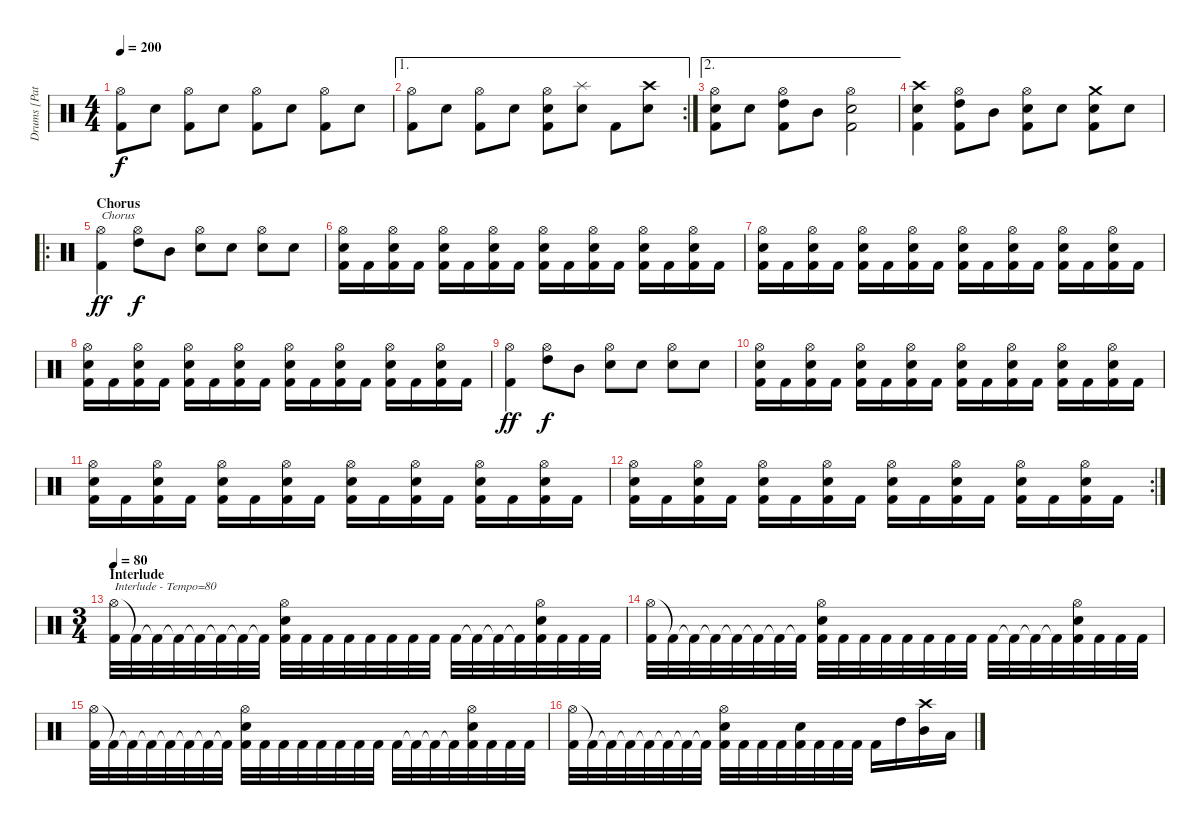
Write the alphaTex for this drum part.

\track ("Drums [Patrick Robert]" "Drums [Pat") {instrument percussion}
\staff {score}
\articulation defaults
\ts (4 4)
\tempo 200
\clef neutral
\ks c
("Hi-Hat (open)" "Kick (hit) 2").8{dy f} "Electric Snare (hit)".8 ("Hi-Hat (open)" "Kick (hit) 2").8 "Electric Snare (hit)".8 ("Hi-Hat (open)" "Kick (hit) 2").8 "Electric Snare (hit)".8 ("Hi-Hat (open)" "Kick (hit) 2").8 "Electric Snare (hit)".8 |
\ae 1
\rc 2
("Hi-Hat (open)" "Kick (hit) 2").8 "Electric Snare (hit)".8 ("Hi-Hat (open)" "Kick (hit) 2").8 "Electric Snare (hit)".8 ("Hi-Hat (open)" "Electric Snare (hit)" "Kick (hit) 2").8 ("Splash (hit)" "Electric Snare (hit)").8 "Kick (hit) 2".8 ("Crash high (hit)" "Electric Snare (hit)").8 |
\ae 2
("Hi-Hat (open)" "Electric Snare (hit)" "Kick (hit) 2").8 "Electric Snare (hit)".8 ("Hi-Hat (open)" "High Tom (hit)" "Kick (hit) 2").8 "Mid Tom (hit)".8 ("Hi-Hat (open)" "Electric Snare (hit)" "Kick (hit) 2").2 |
("Crash high (hit)" "Electric Snare (hit)" "Kick (hit) 2").4 ("Hi-Hat (open)" "High Tom (hit)" "Kick (hit) 2").8 "Mid Tom (hit)".8 ("Hi-Hat (open)" "Electric Snare (hit)" "Kick (hit) 2").8 "Electric Snare (hit)".8 ("Crash medium (hit)" "Electric Snare (hit)" "Kick (hit) 2").8 "Electric Snare (hit)".8 |
\ro
\section ("" "Chorus")
("Hi-Hat (open)" "Kick (hit) 2").4{txt "Chorus" dy ff} ("Hi-Hat (open)" "High Tom (hit)").8{dy f} "Mid Tom (hit)".8 ("Hi-Hat (open)" "Electric Snare (hit)").8 "Electric Snare (hit)".8 ("Hi-Hat (open)" "Electric Snare (hit)").8 "Electric Snare (hit)".8 |
("Hi-Hat (open)" "Electric Snare (hit)" "Kick (hit) 2").16 "Kick (hit) 2".16 ("Hi-Hat (open)" "Electric Snare (hit)" "Kick (hit) 2").16 "Kick (hit) 2".16 ("Hi-Hat (open)" "Electric Snare (hit)" "Kick (hit) 2").16 "Kick (hit) 2".16 ("Hi-Hat (open)" "Electric Snare (hit)" "Kick (hit) 2").16 "Kick (hit) 2".16 ("Hi-Hat (open)" "Electric Snare (hit)" "Kick (hit) 2").16 "Kick (hit) 2".16 ("Hi-Hat (open)" "Electric Snare (hit)" "Kick (hit) 2").16 "Kick (hit) 2".16 ("Hi-Hat (open)" "Electric Snare (hit)" "Kick (hit) 2").16 "Kick (hit) 2".16 ("Hi-Hat (open)" "Electric Snare (hit)" "Kick (hit) 2").16 "Kick (hit) 2".16 |
("Hi-Hat (open)" "Electric Snare (hit)" "Kick (hit) 2").16 "Kick (hit) 2".16 ("Hi-Hat (open)" "Electric Snare (hit)" "Kick (hit) 2").16 "Kick (hit) 2".16 ("Hi-Hat (open)" "Electric Snare (hit)" "Kick (hit) 2").16 "Kick (hit) 2".16 ("Hi-Hat (open)" "Electric Snare (hit)" "Kick (hit) 2").16 "Kick (hit) 2".16 ("Hi-Hat (open)" "Electric Snare (hit)" "Kick (hit) 2").16 "Kick (hit) 2".16 ("Hi-Hat (open)" "Electric Snare (hit)" "Kick (hit) 2").16 "Kick (hit) 2".16 ("Hi-Hat (open)" "Electric Snare (hit)" "Kick (hit) 2").16 "Kick (hit) 2".16 ("Hi-Hat (open)" "Electric Snare (hit)" "Kick (hit) 2").16 "Kick (hit) 2".16 |
("Hi-Hat (open)" "Electric Snare (hit)" "Kick (hit) 2").16 "Kick (hit) 2".16 ("Hi-Hat (open)" "Electric Snare (hit)" "Kick (hit) 2").16 "Kick (hit) 2".16 ("Hi-Hat (open)" "Electric Snare (hit)" "Kick (hit) 2").16 "Kick (hit) 2".16 ("Hi-Hat (open)" "Electric Snare (hit)" "Kick (hit) 2").16 "Kick (hit) 2".16 ("Hi-Hat (open)" "Electric Snare (hit)" "Kick (hit) 2").16 "Kick (hit) 2".16 ("Hi-Hat (open)" "Electric Snare (hit)" "Kick (hit) 2").16 "Kick (hit) 2".16 ("Hi-Hat (open)" "Electric Snare (hit)" "Kick (hit) 2").16 "Kick (hit) 2".16 ("Hi-Hat (open)" "Electric Snare (hit)" "Kick (hit) 2").16 "Kick (hit) 2".16 |
("Hi-Hat (open)" "Kick (hit) 2").4{dy ff} ("Hi-Hat (open)" "High Tom (hit)").8{dy f} "Mid Tom (hit)".8 ("Hi-Hat (open)" "Electric Snare (hit)").8 "Electric Snare (hit)".8 ("Hi-Hat (open)" "Electric Snare (hit)").8 "Electric Snare (hit)".8 |
("Hi-Hat (open)" "Electric Snare (hit)" "Kick (hit) 2").16 "Kick (hit) 2".16 ("Hi-Hat (open)" "Electric Snare (hit)" "Kick (hit) 2").16 "Kick (hit) 2".16 ("Hi-Hat (open)" "Electric Snare (hit)" "Kick (hit) 2").16 "Kick (hit) 2".16 ("Hi-Hat (open)" "Electric Snare (hit)" "Kick (hit) 2").16 "Kick (hit) 2".16 ("Hi-Hat (open)" "Electric Snare (hit)" "Kick (hit) 2").16 "Kick (hit) 2".16 ("Hi-Hat (open)" "Electric Snare (hit)" "Kick (hit) 2").16 "Kick (hit) 2".16 ("Hi-Hat (open)" "Electric Snare (hit)" "Kick (hit) 2").16 "Kick (hit) 2".16 ("Hi-Hat (open)" "Electric Snare (hit)" "Kick (hit) 2").16 "Kick (hit) 2".16 |
("Hi-Hat (open)" "Electric Snare (hit)" "Kick (hit) 2").16 "Kick (hit) 2".16 ("Hi-Hat (open)" "Electric Snare (hit)" "Kick (hit) 2").16 "Kick (hit) 2".16 ("Hi-Hat (open)" "Electric Snare (hit)" "Kick (hit) 2").16 "Kick (hit) 2".16 ("Hi-Hat (open)" "Electric Snare (hit)" "Kick (hit) 2").16 "Kick (hit) 2".16 ("Hi-Hat (open)" "Electric Snare (hit)" "Kick (hit) 2").16 "Kick (hit) 2".16 ("Hi-Hat (open)" "Electric Snare (hit)" "Kick (hit) 2").16 "Kick (hit) 2".16 ("Hi-Hat (open)" "Electric Snare (hit)" "Kick (hit) 2").16 "Kick (hit) 2".16 ("Hi-Hat (open)" "Electric Snare (hit)" "Kick (hit) 2").16 "Kick (hit) 2".16 |
\rc 2
("Hi-Hat (open)" "Electric Snare (hit)" "Kick (hit) 2").16 "Kick (hit) 2".16 ("Hi-Hat (open)" "Electric Snare (hit)" "Kick (hit) 2").16 "Kick (hit) 2".16 ("Hi-Hat (open)" "Electric Snare (hit)" "Kick (hit) 2").16 "Kick (hit) 2".16 ("Hi-Hat (open)" "Electric Snare (hit)" "Kick (hit) 2").16 "Kick (hit) 2".16 ("Hi-Hat (open)" "Electric Snare (hit)" "Kick (hit) 2").16 "Kick (hit) 2".16 ("Hi-Hat (open)" "Electric Snare (hit)" "Kick (hit) 2").16 "Kick (hit) 2".16 ("Hi-Hat (open)" "Electric Snare (hit)" "Kick (hit) 2").16 "Kick (hit) 2".16 ("Hi-Hat (open)" "Electric Snare (hit)" "Kick (hit) 2").16 "Kick (hit) 2".16 |
\ts (3 4)
\section ("" "Interlude")
\tempo 80
("Hi-Hat (open)" "Kick (hit) 2").32{txt "Interlude - Tempo=80"} "Kick (hit) 2"{t}.32 "Kick (hit) 2"{t}.32 "Kick (hit) 2"{t}.32 "Kick (hit) 2"{t}.32 "Kick (hit) 2"{t}.32 "Kick (hit) 2"{t}.32 "Kick (hit) 2"{t}.32 ("Hi-Hat (open)" "Electric Snare (hit)" "Kick (hit) 2").32 "Kick (hit) 2".32 "Kick (hit) 2".32 "Kick (hit) 2".32 "Kick (hit) 2".32 "Kick (hit) 2".32 "Kick (hit) 2".32 "Kick (hit) 2".32 "Kick (hit) 2".32 "Kick (hit) 2"{t}.32 "Kick (hit) 2"{t}.32 "Kick (hit) 2"{t}.32 ("Hi-Hat (open)" "Electric Snare (hit)" "Kick (hit) 2").32 "Kick (hit) 2".32 "Kick (hit) 2".32 "Kick (hit) 2".32 |
("Hi-Hat (open)" "Kick (hit) 2").32 "Kick (hit) 2"{t}.32 "Kick (hit) 2"{t}.32 "Kick (hit) 2"{t}.32 "Kick (hit) 2"{t}.32 "Kick (hit) 2"{t}.32 "Kick (hit) 2"{t}.32 "Kick (hit) 2"{t}.32 ("Hi-Hat (open)" "Electric Snare (hit)" "Kick (hit) 2").32 "Kick (hit) 2".32 "Kick (hit) 2".32 "Kick (hit) 2".32 "Kick (hit) 2".32 "Kick (hit) 2".32 "Kick (hit) 2".32 "Kick (hit) 2".32 "Kick (hit) 2".32 "Kick (hit) 2"{t}.32 "Kick (hit) 2"{t}.32 "Kick (hit) 2"{t}.32 ("Hi-Hat (open)" "Electric Snare (hit)" "Kick (hit) 2").32 "Kick (hit) 2".32 "Kick (hit) 2".32 "Kick (hit) 2".32 |
("Hi-Hat (open)" "Kick (hit) 2").32 "Kick (hit) 2"{t}.32 "Kick (hit) 2"{t}.32 "Kick (hit) 2"{t}.32 "Kick (hit) 2"{t}.32 "Kick (hit) 2"{t}.32 "Kick (hit) 2"{t}.32 "Kick (hit) 2"{t}.32 ("Hi-Hat (open)" "Electric Snare (hit)" "Kick (hit) 2").32 "Kick (hit) 2".32 "Kick (hit) 2".32 "Kick (hit) 2".32 "Kick (hit) 2".32 "Kick (hit) 2".32 "Kick (hit) 2".32 "Kick (hit) 2".32 "Kick (hit) 2".32 "Kick (hit) 2"{t}.32 "Kick (hit) 2"{t}.32 "Kick (hit) 2"{t}.32 ("Hi-Hat (open)" "Electric Snare (hit)" "Kick (hit) 2").32 "Kick (hit) 2".32 "Kick (hit) 2".32 "Kick (hit) 2".32 |
("Hi-Hat (open)" "Kick (hit) 2").32 "Kick (hit) 2"{t}.32 "Kick (hit) 2"{t}.32 "Kick (hit) 2"{t}.32 "Kick (hit) 2"{t}.32 "Kick (hit) 2"{t}.32 "Kick (hit) 2"{t}.32 "Kick (hit) 2"{t}.32 ("Hi-Hat (open)" "Electric Snare (hit)" "Kick (hit) 2").32 "Kick (hit) 2".32 "Kick (hit) 2".32 "Kick (hit) 2".32 ("Electric Snare (hit)" "Kick (hit) 2").32 "Kick (hit) 2".32 "Kick (hit) 2".32 "Kick (hit) 2".32 "Kick (hit) 2".16 "High Tom (hit)".16 ("Crash high (hit)" "Mid Tom (hit)").16 "Low Tom (hit)".16
